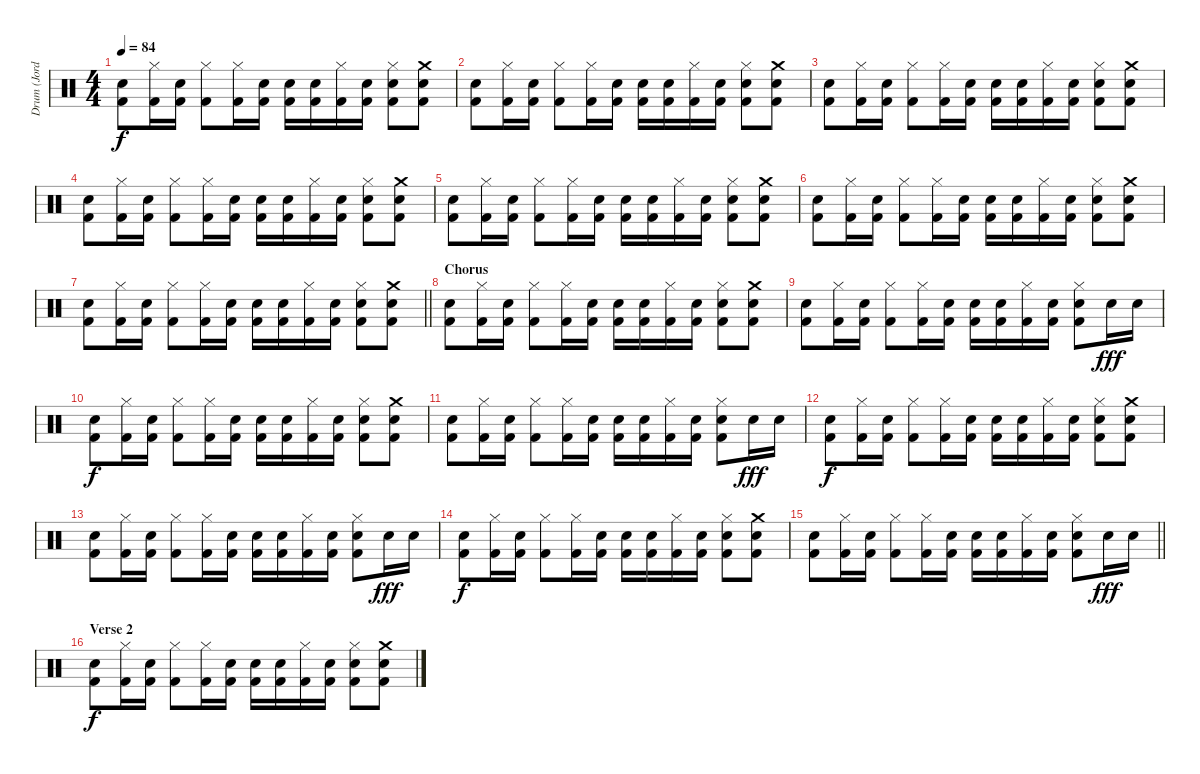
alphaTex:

\track ("Drum (Jordan)" "Drum (Jord") {instrument percussion}
\staff {score}
\articulation defaults
\ts (4 4)
\tempo 84
\clef neutral
\ks c
("Kick (hit) 2" "Electric Snare (hit)").8{dy f} ("Kick (hit) 2" "Hi-Hat (closed)").16 ("Kick (hit) 2" "Electric Snare (hit)").16 ("Kick (hit) 2" "Hi-Hat (closed)").8 ("Kick (hit) 2" "Hi-Hat (closed)").16 ("Kick (hit) 2" "Electric Snare (hit)").16 ("Kick (hit) 2" "Electric Snare (hit)").16 ("Kick (hit) 2" "Electric Snare (hit)").16 ("Kick (hit) 2" "Hi-Hat (closed)").16 ("Kick (hit) 2" "Electric Snare (hit)").16 ("Kick (hit) 2" "Electric Snare (hit)" "Hi-Hat (closed)").8 ("Kick (hit) 2" "Electric Snare (hit)" "Crash medium (hit)").8 |
("Kick (hit) 2" "Electric Snare (hit)").8 ("Kick (hit) 2" "Hi-Hat (closed)").16 ("Kick (hit) 2" "Electric Snare (hit)").16 ("Kick (hit) 2" "Hi-Hat (closed)").8 ("Kick (hit) 2" "Hi-Hat (closed)").16 ("Kick (hit) 2" "Electric Snare (hit)").16 ("Kick (hit) 2" "Electric Snare (hit)").16 ("Kick (hit) 2" "Electric Snare (hit)").16 ("Kick (hit) 2" "Hi-Hat (closed)").16 ("Kick (hit) 2" "Electric Snare (hit)").16 ("Kick (hit) 2" "Electric Snare (hit)" "Hi-Hat (closed)").8 ("Kick (hit) 2" "Electric Snare (hit)" "Crash medium (hit)").8 |
("Kick (hit) 2" "Electric Snare (hit)").8 ("Kick (hit) 2" "Hi-Hat (closed)").16 ("Kick (hit) 2" "Electric Snare (hit)").16 ("Kick (hit) 2" "Hi-Hat (closed)").8 ("Kick (hit) 2" "Hi-Hat (closed)").16 ("Kick (hit) 2" "Electric Snare (hit)").16 ("Kick (hit) 2" "Electric Snare (hit)").16 ("Kick (hit) 2" "Electric Snare (hit)").16 ("Kick (hit) 2" "Hi-Hat (closed)").16 ("Kick (hit) 2" "Electric Snare (hit)").16 ("Kick (hit) 2" "Electric Snare (hit)" "Hi-Hat (closed)").8 ("Kick (hit) 2" "Electric Snare (hit)" "Crash medium (hit)").8 |
("Kick (hit) 2" "Electric Snare (hit)").8 ("Kick (hit) 2" "Hi-Hat (closed)").16 ("Kick (hit) 2" "Electric Snare (hit)").16 ("Kick (hit) 2" "Hi-Hat (closed)").8 ("Kick (hit) 2" "Hi-Hat (closed)").16 ("Kick (hit) 2" "Electric Snare (hit)").16 ("Kick (hit) 2" "Electric Snare (hit)").16 ("Kick (hit) 2" "Electric Snare (hit)").16 ("Kick (hit) 2" "Hi-Hat (closed)").16 ("Kick (hit) 2" "Electric Snare (hit)").16 ("Kick (hit) 2" "Electric Snare (hit)" "Hi-Hat (closed)").8 ("Kick (hit) 2" "Electric Snare (hit)" "Crash medium (hit)").8 |
("Kick (hit) 2" "Electric Snare (hit)").8 ("Kick (hit) 2" "Hi-Hat (closed)").16 ("Kick (hit) 2" "Electric Snare (hit)").16 ("Kick (hit) 2" "Hi-Hat (closed)").8 ("Kick (hit) 2" "Hi-Hat (closed)").16 ("Kick (hit) 2" "Electric Snare (hit)").16 ("Kick (hit) 2" "Electric Snare (hit)").16 ("Kick (hit) 2" "Electric Snare (hit)").16 ("Kick (hit) 2" "Hi-Hat (closed)").16 ("Kick (hit) 2" "Electric Snare (hit)").16 ("Kick (hit) 2" "Electric Snare (hit)" "Hi-Hat (closed)").8 ("Kick (hit) 2" "Electric Snare (hit)" "Crash medium (hit)").8 |
("Kick (hit) 2" "Electric Snare (hit)").8 ("Kick (hit) 2" "Hi-Hat (closed)").16 ("Kick (hit) 2" "Electric Snare (hit)").16 ("Kick (hit) 2" "Hi-Hat (closed)").8 ("Kick (hit) 2" "Hi-Hat (closed)").16 ("Kick (hit) 2" "Electric Snare (hit)").16 ("Kick (hit) 2" "Electric Snare (hit)").16 ("Kick (hit) 2" "Electric Snare (hit)").16 ("Kick (hit) 2" "Hi-Hat (closed)").16 ("Kick (hit) 2" "Electric Snare (hit)").16 ("Kick (hit) 2" "Electric Snare (hit)" "Hi-Hat (closed)").8 ("Kick (hit) 2" "Electric Snare (hit)" "Crash medium (hit)").8 |
\barLineRight lightlight
("Kick (hit) 2" "Electric Snare (hit)").8 ("Kick (hit) 2" "Hi-Hat (closed)").16 ("Kick (hit) 2" "Electric Snare (hit)").16 ("Kick (hit) 2" "Hi-Hat (closed)").8 ("Kick (hit) 2" "Hi-Hat (closed)").16 ("Kick (hit) 2" "Electric Snare (hit)").16 ("Kick (hit) 2" "Electric Snare (hit)").16 ("Kick (hit) 2" "Electric Snare (hit)").16 ("Kick (hit) 2" "Hi-Hat (closed)").16 ("Kick (hit) 2" "Electric Snare (hit)").16 ("Kick (hit) 2" "Electric Snare (hit)" "Hi-Hat (closed)").8 ("Kick (hit) 2" "Electric Snare (hit)" "Crash medium (hit)").8 |
\section ("" "Chorus")
("Kick (hit) 2" "Electric Snare (hit)").8 ("Kick (hit) 2" "Hi-Hat (closed)").16 ("Kick (hit) 2" "Electric Snare (hit)").16 ("Kick (hit) 2" "Hi-Hat (closed)").8 ("Kick (hit) 2" "Hi-Hat (closed)").16 ("Kick (hit) 2" "Electric Snare (hit)").16 ("Kick (hit) 2" "Electric Snare (hit)").16 ("Kick (hit) 2" "Electric Snare (hit)").16 ("Kick (hit) 2" "Hi-Hat (closed)").16 ("Kick (hit) 2" "Electric Snare (hit)").16 ("Kick (hit) 2" "Electric Snare (hit)" "Hi-Hat (closed)").8 ("Kick (hit) 2" "Electric Snare (hit)" "Crash medium (hit)").8 |
("Kick (hit) 2" "Electric Snare (hit)").8 ("Kick (hit) 2" "Hi-Hat (closed)").16 ("Kick (hit) 2" "Electric Snare (hit)").16 ("Kick (hit) 2" "Hi-Hat (closed)").8 ("Kick (hit) 2" "Hi-Hat (closed)").16 ("Kick (hit) 2" "Electric Snare (hit)").16 ("Kick (hit) 2" "Electric Snare (hit)").16 ("Kick (hit) 2" "Electric Snare (hit)").16 ("Kick (hit) 2" "Hi-Hat (closed)").16 ("Kick (hit) 2" "Electric Snare (hit)").16 ("Kick (hit) 2" "Electric Snare (hit)" "Hi-Hat (closed)").8 "Electric Snare (hit)".16{dy fff} "Electric Snare (hit)".16 |
("Kick (hit) 2" "Electric Snare (hit)").8{dy f} ("Kick (hit) 2" "Hi-Hat (closed)").16 ("Kick (hit) 2" "Electric Snare (hit)").16 ("Kick (hit) 2" "Hi-Hat (closed)").8 ("Kick (hit) 2" "Hi-Hat (closed)").16 ("Kick (hit) 2" "Electric Snare (hit)").16 ("Kick (hit) 2" "Electric Snare (hit)").16 ("Kick (hit) 2" "Electric Snare (hit)").16 ("Kick (hit) 2" "Hi-Hat (closed)").16 ("Kick (hit) 2" "Electric Snare (hit)").16 ("Kick (hit) 2" "Electric Snare (hit)" "Hi-Hat (closed)").8 ("Kick (hit) 2" "Electric Snare (hit)" "Crash medium (hit)").8 |
("Kick (hit) 2" "Electric Snare (hit)").8 ("Kick (hit) 2" "Hi-Hat (closed)").16 ("Kick (hit) 2" "Electric Snare (hit)").16 ("Kick (hit) 2" "Hi-Hat (closed)").8 ("Kick (hit) 2" "Hi-Hat (closed)").16 ("Kick (hit) 2" "Electric Snare (hit)").16 ("Kick (hit) 2" "Electric Snare (hit)").16 ("Kick (hit) 2" "Electric Snare (hit)").16 ("Kick (hit) 2" "Hi-Hat (closed)").16 ("Kick (hit) 2" "Electric Snare (hit)").16 ("Kick (hit) 2" "Electric Snare (hit)" "Hi-Hat (closed)").8 "Electric Snare (hit)".16{dy fff} "Electric Snare (hit)".16 |
("Kick (hit) 2" "Electric Snare (hit)").8{dy f} ("Kick (hit) 2" "Hi-Hat (closed)").16 ("Kick (hit) 2" "Electric Snare (hit)").16 ("Kick (hit) 2" "Hi-Hat (closed)").8 ("Kick (hit) 2" "Hi-Hat (closed)").16 ("Kick (hit) 2" "Electric Snare (hit)").16 ("Kick (hit) 2" "Electric Snare (hit)").16 ("Kick (hit) 2" "Electric Snare (hit)").16 ("Kick (hit) 2" "Hi-Hat (closed)").16 ("Kick (hit) 2" "Electric Snare (hit)").16 ("Kick (hit) 2" "Electric Snare (hit)" "Hi-Hat (closed)").8 ("Kick (hit) 2" "Electric Snare (hit)" "Crash medium (hit)").8 |
("Kick (hit) 2" "Electric Snare (hit)").8 ("Kick (hit) 2" "Hi-Hat (closed)").16 ("Kick (hit) 2" "Electric Snare (hit)").16 ("Kick (hit) 2" "Hi-Hat (closed)").8 ("Kick (hit) 2" "Hi-Hat (closed)").16 ("Kick (hit) 2" "Electric Snare (hit)").16 ("Kick (hit) 2" "Electric Snare (hit)").16 ("Kick (hit) 2" "Electric Snare (hit)").16 ("Kick (hit) 2" "Hi-Hat (closed)").16 ("Kick (hit) 2" "Electric Snare (hit)").16 ("Kick (hit) 2" "Electric Snare (hit)" "Hi-Hat (closed)").8 "Electric Snare (hit)".16{dy fff} "Electric Snare (hit)".16 |
("Kick (hit) 2" "Electric Snare (hit)").8{dy f} ("Kick (hit) 2" "Hi-Hat (closed)").16 ("Kick (hit) 2" "Electric Snare (hit)").16 ("Kick (hit) 2" "Hi-Hat (closed)").8 ("Kick (hit) 2" "Hi-Hat (closed)").16 ("Kick (hit) 2" "Electric Snare (hit)").16 ("Kick (hit) 2" "Electric Snare (hit)").16 ("Kick (hit) 2" "Electric Snare (hit)").16 ("Kick (hit) 2" "Hi-Hat (closed)").16 ("Kick (hit) 2" "Electric Snare (hit)").16 ("Kick (hit) 2" "Electric Snare (hit)" "Hi-Hat (closed)").8 ("Kick (hit) 2" "Electric Snare (hit)" "Crash medium (hit)").8 |
\barLineRight lightlight
("Kick (hit) 2" "Electric Snare (hit)").8 ("Kick (hit) 2" "Hi-Hat (closed)").16 ("Kick (hit) 2" "Electric Snare (hit)").16 ("Kick (hit) 2" "Hi-Hat (closed)").8 ("Kick (hit) 2" "Hi-Hat (closed)").16 ("Kick (hit) 2" "Electric Snare (hit)").16 ("Kick (hit) 2" "Electric Snare (hit)").16 ("Kick (hit) 2" "Electric Snare (hit)").16 ("Kick (hit) 2" "Hi-Hat (closed)").16 ("Kick (hit) 2" "Electric Snare (hit)").16 ("Kick (hit) 2" "Electric Snare (hit)" "Hi-Hat (closed)").8 "Electric Snare (hit)".16{dy fff} "Electric Snare (hit)".16 |
\section ("" "Verse 2")
("Kick (hit) 2" "Electric Snare (hit)").8{dy f} ("Kick (hit) 2" "Hi-Hat (closed)").16 ("Kick (hit) 2" "Electric Snare (hit)").16 ("Kick (hit) 2" "Hi-Hat (closed)").8 ("Kick (hit) 2" "Hi-Hat (closed)").16 ("Kick (hit) 2" "Electric Snare (hit)").16 ("Kick (hit) 2" "Electric Snare (hit)").16 ("Kick (hit) 2" "Electric Snare (hit)").16 ("Kick (hit) 2" "Hi-Hat (closed)").16 ("Kick (hit) 2" "Electric Snare (hit)").16 ("Kick (hit) 2" "Electric Snare (hit)" "Hi-Hat (closed)").8 ("Kick (hit) 2" "Electric Snare (hit)" "Crash medium (hit)").8
